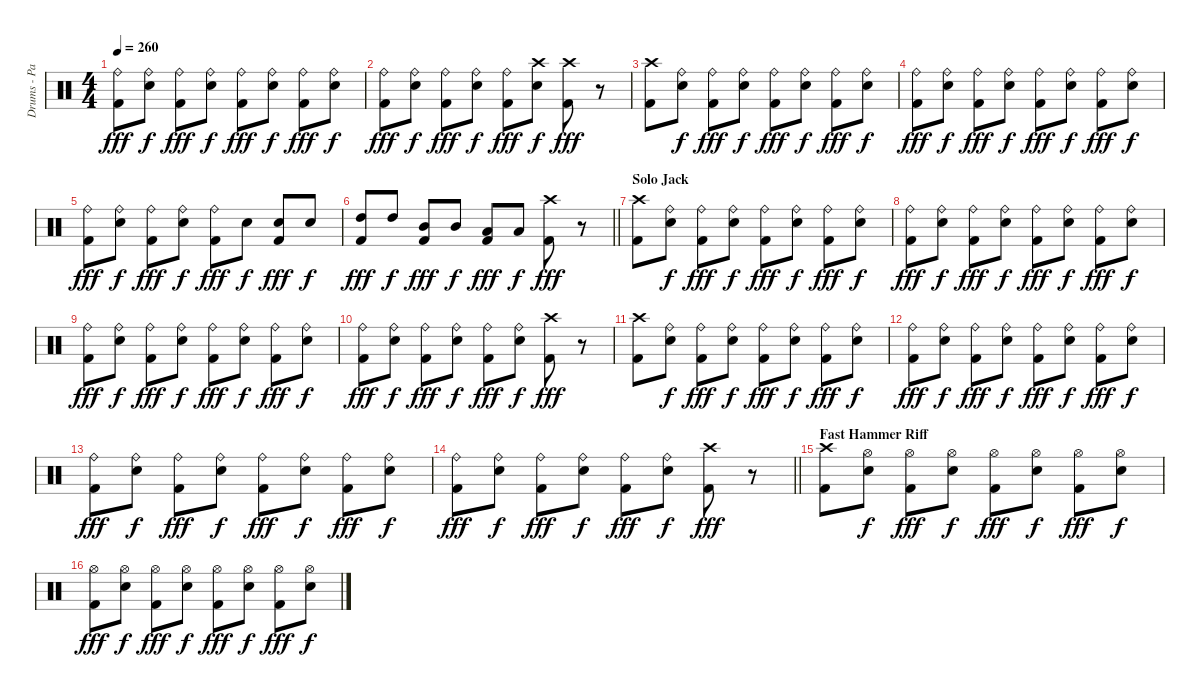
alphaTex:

\track ("Drums - Paul Mazurkiewicz" "Drums - Pa") {instrument percussion}
\staff {score}
\articulation defaults
\ts (4 4)
\tempo 260
\clef neutral
\ks c
("Ride (bell)" "Kick (hit) 2").8{dy fff} ("Ride (bell)" "Snare (hit) 2").8{dy f} ("Ride (bell)" "Kick (hit) 2").8{dy fff} ("Ride (bell)" "Snare (hit) 2").8{dy f} ("Ride (bell)" "Kick (hit) 2").8{dy fff} ("Ride (bell)" "Snare (hit) 2").8{dy f} ("Ride (bell)" "Kick (hit) 2").8{dy fff} ("Ride (bell)" "Snare (hit) 2").8{dy f} |
("Ride (bell)" "Kick (hit) 2").8{dy fff} ("Ride (bell)" "Snare (hit) 2").8{dy f} ("Ride (bell)" "Kick (hit) 2").8{dy fff} ("Ride (bell)" "Snare (hit) 2").8{dy f} ("Ride (bell)" "Kick (hit) 2").8{dy fff} ("Crash high (hit)" "Snare (hit) 2").8{dy f} ("Crash high (hit)" "Kick (hit) 2").8{dy fff} r.8 |
("Crash high (hit)" "Kick (hit) 2").8 ("Ride (bell)" "Snare (hit) 2").8{dy f} ("Ride (bell)" "Kick (hit) 2").8{dy fff} ("Ride (bell)" "Snare (hit) 2").8{dy f} ("Ride (bell)" "Kick (hit) 2").8{dy fff} ("Ride (bell)" "Snare (hit) 2").8{dy f} ("Ride (bell)" "Kick (hit) 2").8{dy fff} ("Ride (bell)" "Snare (hit) 2").8{dy f} |
("Ride (bell)" "Kick (hit) 2").8{dy fff} ("Ride (bell)" "Snare (hit) 2").8{dy f} ("Ride (bell)" "Kick (hit) 2").8{dy fff} ("Ride (bell)" "Snare (hit) 2").8{dy f} ("Ride (bell)" "Kick (hit) 2").8{dy fff} ("Ride (bell)" "Snare (hit) 2").8{dy f} ("Ride (bell)" "Kick (hit) 2").8{dy fff} ("Ride (bell)" "Snare (hit) 2").8{dy f} |
("Ride (bell)" "Kick (hit) 2").8{dy fff} ("Ride (bell)" "Snare (hit) 2").8{dy f} ("Ride (bell)" "Kick (hit) 2").8{dy fff} ("Ride (bell)" "Snare (hit) 2").8{dy f} ("Ride (bell)" "Kick (hit) 2").8{dy fff} "Snare (hit) 2".8{dy f} ("Snare (hit) 2" "Kick (hit) 2").8{dy fff} "Snare (hit) 2".8{dy f} |
\barLineRight lightlight
("High Tom (hit)" "Kick (hit) 2").8{dy fff} "High Tom (hit)".8{dy f} ("Mid Tom (hit)" "Kick (hit) 2").8{dy fff} "Mid Tom (hit)".8{dy f} ("Low Tom (hit)" "Kick (hit) 2").8{dy fff} "Low Tom (hit)".8{dy f} ("Crash high (hit)" "Kick (hit) 2").8{dy fff} r.8 |
\section ("" "Solo Jack")
("Crash high (hit)" "Kick (hit) 2").8 ("Ride (bell)" "Snare (hit) 2").8{dy f} ("Ride (bell)" "Kick (hit) 2").8{dy fff} ("Ride (bell)" "Snare (hit) 2").8{dy f} ("Ride (bell)" "Kick (hit) 2").8{dy fff} ("Ride (bell)" "Snare (hit) 2").8{dy f} ("Ride (bell)" "Kick (hit) 2").8{dy fff} ("Ride (bell)" "Snare (hit) 2").8{dy f} |
("Ride (bell)" "Kick (hit) 2").8{dy fff} ("Ride (bell)" "Snare (hit) 2").8{dy f} ("Ride (bell)" "Kick (hit) 2").8{dy fff} ("Ride (bell)" "Snare (hit) 2").8{dy f} ("Ride (bell)" "Kick (hit) 2").8{dy fff} ("Ride (bell)" "Snare (hit) 2").8{dy f} ("Ride (bell)" "Kick (hit) 2").8{dy fff} ("Ride (bell)" "Snare (hit) 2").8{dy f} |
("Ride (bell)" "Kick (hit) 2").8{dy fff} ("Ride (bell)" "Snare (hit) 2").8{dy f} ("Ride (bell)" "Kick (hit) 2").8{dy fff} ("Ride (bell)" "Snare (hit) 2").8{dy f} ("Ride (bell)" "Kick (hit) 2").8{dy fff} ("Ride (bell)" "Snare (hit) 2").8{dy f} ("Ride (bell)" "Kick (hit) 2").8{dy fff} ("Ride (bell)" "Snare (hit) 2").8{dy f} |
("Ride (bell)" "Kick (hit) 2").8{dy fff} ("Ride (bell)" "Snare (hit) 2").8{dy f} ("Ride (bell)" "Kick (hit) 2").8{dy fff} ("Ride (bell)" "Snare (hit) 2").8{dy f} ("Ride (bell)" "Kick (hit) 2").8{dy fff} ("Ride (bell)" "Snare (hit) 2").8{dy f} ("Crash high (hit)" "Kick (hit) 2").8{dy fff} r.8 |
("Crash high (hit)" "Kick (hit) 2").8 ("Ride (bell)" "Snare (hit) 2").8{dy f} ("Ride (bell)" "Kick (hit) 2").8{dy fff} ("Ride (bell)" "Snare (hit) 2").8{dy f} ("Ride (bell)" "Kick (hit) 2").8{dy fff} ("Ride (bell)" "Snare (hit) 2").8{dy f} ("Ride (bell)" "Kick (hit) 2").8{dy fff} ("Ride (bell)" "Snare (hit) 2").8{dy f} |
("Ride (bell)" "Kick (hit) 2").8{dy fff} ("Ride (bell)" "Snare (hit) 2").8{dy f} ("Ride (bell)" "Kick (hit) 2").8{dy fff} ("Ride (bell)" "Snare (hit) 2").8{dy f} ("Ride (bell)" "Kick (hit) 2").8{dy fff} ("Ride (bell)" "Snare (hit) 2").8{dy f} ("Ride (bell)" "Kick (hit) 2").8{dy fff} ("Ride (bell)" "Snare (hit) 2").8{dy f} |
("Ride (bell)" "Kick (hit) 2").8{dy fff} ("Ride (bell)" "Snare (hit) 2").8{dy f} ("Ride (bell)" "Kick (hit) 2").8{dy fff} ("Ride (bell)" "Snare (hit) 2").8{dy f} ("Ride (bell)" "Kick (hit) 2").8{dy fff} ("Ride (bell)" "Snare (hit) 2").8{dy f} ("Ride (bell)" "Kick (hit) 2").8{dy fff} ("Ride (bell)" "Snare (hit) 2").8{dy f} |
\barLineRight lightlight
("Ride (bell)" "Kick (hit) 2").8{dy fff} ("Ride (bell)" "Snare (hit) 2").8{dy f} ("Ride (bell)" "Kick (hit) 2").8{dy fff} ("Ride (bell)" "Snare (hit) 2").8{dy f} ("Ride (bell)" "Kick (hit) 2").8{dy fff} ("Ride (bell)" "Snare (hit) 2").8{dy f} ("Crash high (hit)" "Kick (hit) 2").8{dy fff} r.8 |
\section ("" "Fast Hammer Riff")
("Crash high (hit)" "Kick (hit) 2").8 ("Hi-Hat (open)" "Snare (hit) 2").8{dy f} ("Hi-Hat (open)" "Kick (hit) 2").8{dy fff} ("Hi-Hat (open)" "Snare (hit) 2").8{dy f} ("Hi-Hat (open)" "Kick (hit) 2").8{dy fff} ("Hi-Hat (open)" "Snare (hit) 2").8{dy f} ("Hi-Hat (open)" "Kick (hit) 2").8{dy fff} ("Hi-Hat (open)" "Snare (hit) 2").8{dy f} |
("Hi-Hat (open)" "Kick (hit) 2").8{dy fff} ("Hi-Hat (open)" "Snare (hit) 2").8{dy f} ("Hi-Hat (open)" "Kick (hit) 2").8{dy fff} ("Hi-Hat (open)" "Snare (hit) 2").8{dy f} ("Hi-Hat (open)" "Kick (hit) 2").8{dy fff} ("Hi-Hat (open)" "Snare (hit) 2").8{dy f} ("Hi-Hat (open)" "Kick (hit) 2").8{dy fff} ("Hi-Hat (open)" "Snare (hit) 2").8{dy f}
